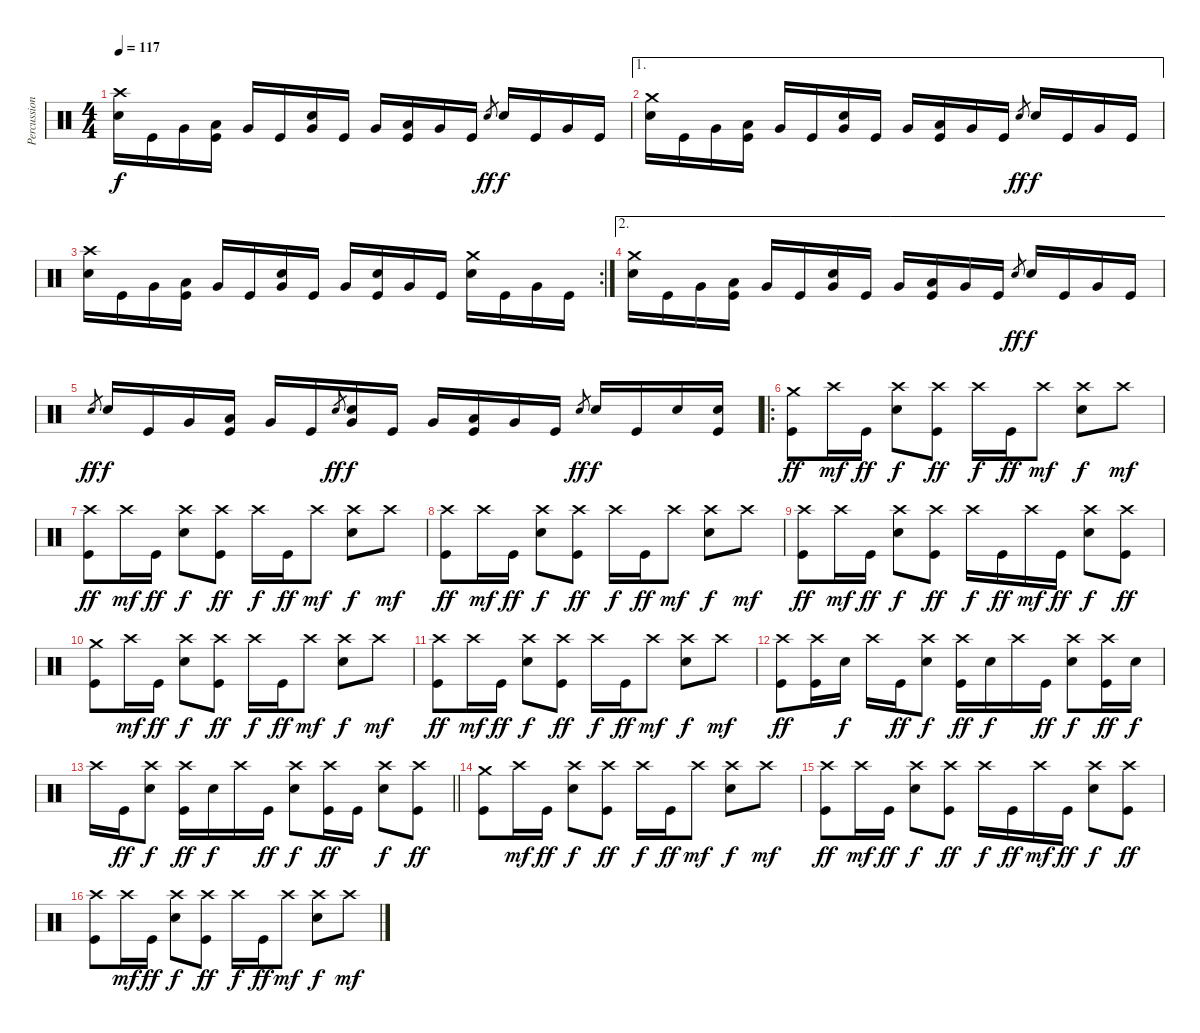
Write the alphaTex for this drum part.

\track ("Percussion" "Percussion") {instrument percussion}
\staff {score}
\articulation defaults
\ts (4 4)
\tempo 117
\clef neutral
\ks c
("Crash high (hit)" "Snare (hit) 2").16{dy f} "Kick (hit)".16 "Very Low Tom (hit)".16 ("Low Tom (hit)" "Kick (hit)").16 "Very Low Tom (hit)".16 "Kick (hit)".16 ("Snare (hit) 2" "Very Low Tom (hit)").16 "Kick (hit)".16 "Very Low Tom (hit)".16 ("Low Tom (hit)" "Kick (hit)").16 "Very Low Tom (hit)".16 "Kick (hit)".16 "Snare (hit) 2".8{gr dy ff} "Snare (hit) 2".16{dy f} "Kick (hit)".16 "Very Low Tom (hit)".16 "Kick (hit)".16 |
\ae 1
("Crash medium (hit)" "Snare (hit) 2").16 "Kick (hit)".16 "Very Low Tom (hit)".16 ("Low Tom (hit)" "Kick (hit)").16 "Very Low Tom (hit)".16 "Kick (hit)".16 ("Snare (hit) 2" "Very Low Tom (hit)").16 "Kick (hit)".16 "Very Low Tom (hit)".16 ("Low Tom (hit)" "Kick (hit)").16 "Very Low Tom (hit)".16 "Kick (hit)".16 "Snare (hit) 2".8{gr dy ff} "Snare (hit) 2".16{dy f} "Kick (hit)".16 "Very Low Tom (hit)".16 "Kick (hit)".16 |
\rc 2
("Crash high (hit)" "Snare (hit) 2").16 "Kick (hit)".16 "Very Low Tom (hit)".16 ("Low Tom (hit)" "Kick (hit)").16 "Very Low Tom (hit)".16 "Kick (hit)".16 ("Snare (hit) 2" "Very Low Tom (hit)").16 "Kick (hit)".16 "Very Low Tom (hit)".16 ("Snare (hit) 2" "Kick (hit)").16 "Very Low Tom (hit)".16 "Kick (hit)".16 ("Crash medium (hit)" "Snare (hit) 2").16 "Kick (hit)".16 "Very Low Tom (hit)".16 "Kick (hit)".16 |
\ae 2
("Crash medium (hit)" "Snare (hit) 2").16 "Kick (hit)".16 "Very Low Tom (hit)".16 ("Low Tom (hit)" "Kick (hit)").16 "Very Low Tom (hit)".16 "Kick (hit)".16 ("Snare (hit) 2" "Very Low Tom (hit)").16 "Kick (hit)".16 "Very Low Tom (hit)".16 ("Low Tom (hit)" "Kick (hit)").16 "Very Low Tom (hit)".16 "Kick (hit)".16 "Snare (hit) 2".8{gr dy ff} "Snare (hit) 2".16{dy f} "Kick (hit)".16 "Very Low Tom (hit)".16 "Kick (hit)".16 |
"Snare (hit) 2".8{gr dy ff} "Snare (hit) 2".16{dy f} "Kick (hit)".16 "Very Low Tom (hit)".16 ("Low Tom (hit)" "Kick (hit)").16 "Very Low Tom (hit)".16 "Kick (hit)".16 "Snare (hit) 2".8{gr dy ff} ("Snare (hit) 2" "Very Low Tom (hit)").16{dy f} "Kick (hit)".16 "Very Low Tom (hit)".16 ("Low Tom (hit)" "Kick (hit)").16 "Very Low Tom (hit)".16 "Kick (hit)".16 "Snare (hit) 2".8{gr dy ff} "Snare (hit) 2".16{dy f} "Kick (hit)".16 "Snare (hit) 2".16 ("Snare (hit) 2" "Kick (hit)").16 |
\ro
("Crash medium (hit)" "Kick (hit)").8{dy ff} "Crash high (hit)".16{dy mf} "Kick (hit)".16{dy ff} ("Crash high (hit)" "Snare (hit) 2").8{dy f} ("Crash high (hit)" "Kick (hit)").8{dy ff} "Crash high (hit)".16{dy f} "Kick (hit)".16{dy ff} "Crash high (hit)".8{dy mf} ("Crash high (hit)" "Snare (hit) 2").8{dy f} "Crash high (hit)".8{dy mf} |
("Crash high (hit)" "Kick (hit)").8{dy ff} "Crash high (hit)".16{dy mf} "Kick (hit)".16{dy ff} ("Crash high (hit)" "Snare (hit) 2").8{dy f} ("Crash high (hit)" "Kick (hit)").8{dy ff} "Crash high (hit)".16{dy f} "Kick (hit)".16{dy ff} "Crash high (hit)".8{dy mf} ("Crash high (hit)" "Snare (hit) 2").8{dy f} "Crash high (hit)".8{dy mf} |
("Crash high (hit)" "Kick (hit)").8{dy ff} "Crash high (hit)".16{dy mf} "Kick (hit)".16{dy ff} ("Crash high (hit)" "Snare (hit) 2").8{dy f} ("Crash high (hit)" "Kick (hit)").8{dy ff} "Crash high (hit)".16{dy f} "Kick (hit)".16{dy ff} "Crash high (hit)".8{dy mf} ("Crash high (hit)" "Snare (hit) 2").8{dy f} "Crash high (hit)".8{dy mf} |
("Crash high (hit)" "Kick (hit)").8{dy ff} "Crash high (hit)".16{dy mf} "Kick (hit)".16{dy ff} ("Crash high (hit)" "Snare (hit) 2").8{dy f} ("Crash high (hit)" "Kick (hit)").8{dy ff} "Crash high (hit)".16{dy f} "Kick (hit)".16{dy ff} "Crash high (hit)".16{dy mf} "Kick (hit)".16{dy ff} ("Crash high (hit)" "Snare (hit) 2").8{dy f} ("Crash high (hit)" "Kick (hit)").8{dy ff} |
("Crash medium (hit)" "Kick (hit)").8 "Crash high (hit)".16{dy mf} "Kick (hit)".16{dy ff} ("Crash high (hit)" "Snare (hit) 2").8{dy f} ("Crash high (hit)" "Kick (hit)").8{dy ff} "Crash high (hit)".16{dy f} "Kick (hit)".16{dy ff} "Crash high (hit)".8{dy mf} ("Crash high (hit)" "Snare (hit) 2").8{dy f} "Crash high (hit)".8{dy mf} |
("Crash high (hit)" "Kick (hit)").8{dy ff} "Crash high (hit)".16{dy mf} "Kick (hit)".16{dy ff} ("Crash high (hit)" "Snare (hit) 2").8{dy f} ("Crash high (hit)" "Kick (hit)").8{dy ff} "Crash high (hit)".16{dy f} "Kick (hit)".16{dy ff} "Crash high (hit)".8{dy mf} ("Crash high (hit)" "Snare (hit) 2").8{dy f} "Crash high (hit)".8{dy mf} |
("Crash high (hit)" "Kick (hit)").8{dy ff} ("Crash high (hit)" "Kick (hit)").16 "Snare (hit) 2".16{dy f} "Crash high (hit)".16 "Kick (hit)".16{dy ff} ("Crash high (hit)" "Snare (hit) 2").8{dy f} ("Crash high (hit)" "Kick (hit)").16{dy ff} "Snare (hit) 2".16{dy f} "Crash high (hit)".16 "Kick (hit)".16{dy ff} ("Crash high (hit)" "Snare (hit) 2").8{dy f} ("Crash high (hit)" "Kick (hit)").16{dy ff} "Snare (hit) 2".16{dy f} |
\barLineRight lightlight "Crash high (hit)".16 "Kick (hit)".16{dy ff}
("Crash high (hit)" "Snare (hit) 2").8{dy f} ("Crash high (hit)" "Kick (hit)").16{dy ff} "Snare (hit) 2".16{dy f} "Crash high (hit)".16 "Kick (hit)".16{dy ff} ("Crash high (hit)" "Snare (hit) 2").8{dy f} ("Crash high (hit)" "Kick (hit)").16{dy ff} "Kick (hit)".16 ("Crash high (hit)" "Snare (hit) 2").8{dy f} ("Crash high (hit)" "Kick (hit)").8{dy ff} |
("Crash medium (hit)" "Kick (hit)").8 "Crash high (hit)".16{dy mf} "Kick (hit)".16{dy ff} ("Crash high (hit)" "Snare (hit) 2").8{dy f} ("Crash high (hit)" "Kick (hit)").8{dy ff} "Crash high (hit)".16{dy f} "Kick (hit)".16{dy ff} "Crash high (hit)".8{dy mf} ("Crash high (hit)" "Snare (hit) 2").8{dy f} "Crash high (hit)".8{dy mf} |
("Crash high (hit)" "Kick (hit)").8{dy ff} "Crash high (hit)".16{dy mf} "Kick (hit)".16{dy ff} ("Crash high (hit)" "Snare (hit) 2").8{dy f} ("Crash high (hit)" "Kick (hit)").8{dy ff} "Crash high (hit)".16{dy f} "Kick (hit)".16{dy ff} "Crash high (hit)".16{dy mf} "Kick (hit)".16{dy ff} ("Crash high (hit)" "Snare (hit) 2").8{dy f} ("Crash high (hit)" "Kick (hit)").8{dy ff} |
("Crash high (hit)" "Kick (hit)").8 "Crash high (hit)".16{dy mf} "Kick (hit)".16{dy ff} ("Crash high (hit)" "Snare (hit) 2").8{dy f} ("Crash high (hit)" "Kick (hit)").8{dy ff} "Crash high (hit)".16{dy f} "Kick (hit)".16{dy ff} "Crash high (hit)".8{dy mf} ("Crash high (hit)" "Snare (hit) 2").8{dy f} "Crash high (hit)".8{dy mf}
